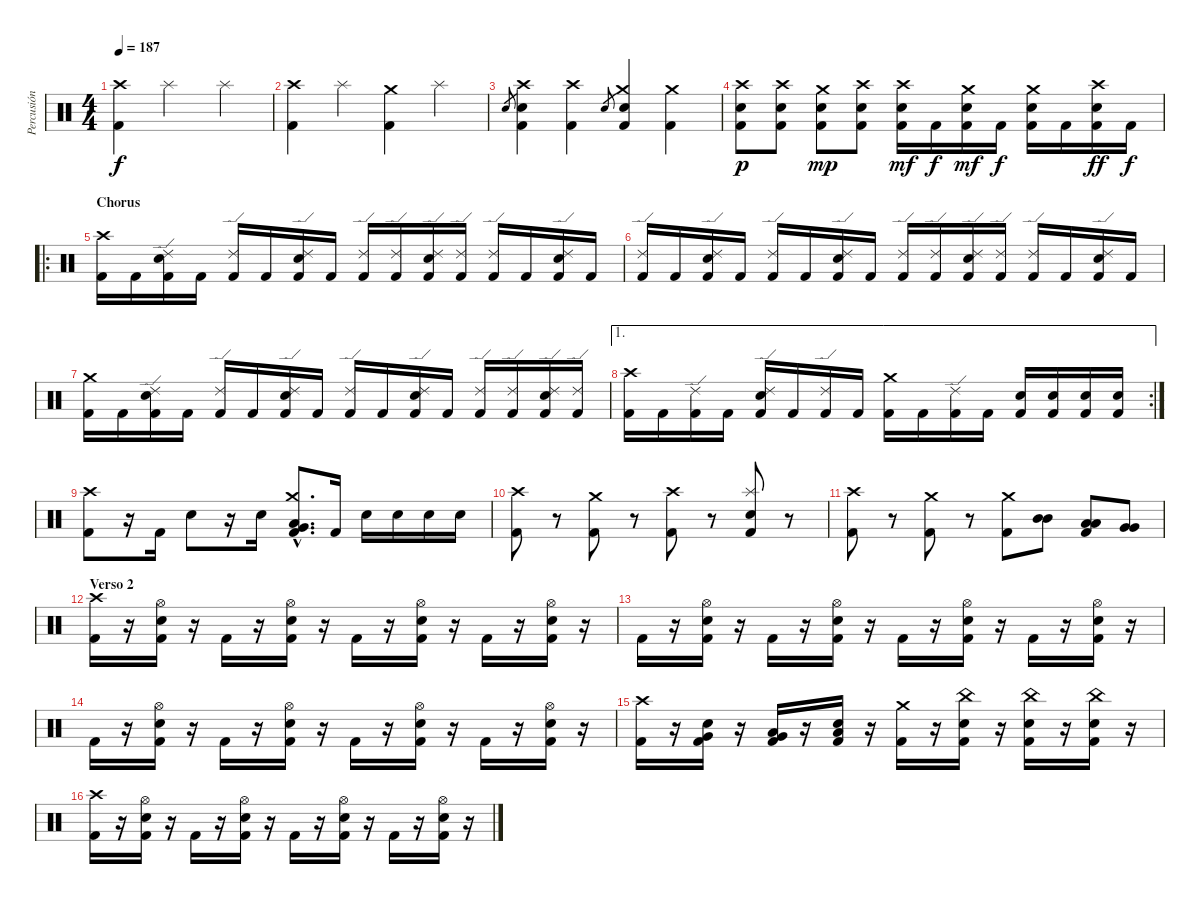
\track ("Percusión" "Percusión") {instrument percussion}
\staff {score}
\articulation defaults
\ts (4 4)
\tempo 187
\clef neutral
\ks c
("Crash high (hit)" "Kick (hit) 2").4{dy f} "Splash (hit)".2 "Splash (hit)".4 |
("Crash high (hit)" "Kick (hit) 2").4 "Splash (hit)".4 ("Crash medium (hit)" "Kick (hit) 2").4 "Splash (hit)".4 |
"Electric Snare (hit)".8{gr} ("Crash high (hit)" "Electric Snare (hit)" "Kick (hit) 2").4 ("Crash high (hit)" "Kick (hit) 2").4 "Electric Snare (hit)".8{gr} ("Crash medium (hit)" "Electric Snare (hit)" "Kick (hit) 2").4 ("Crash medium (hit)" "Kick (hit) 2").4 |
("Crash high (hit)" "Electric Snare (hit)" "Kick (hit) 2").8{dy p} ("Crash high (hit)" "Electric Snare (hit)" "Kick (hit) 2").8 ("Crash medium (hit)" "Electric Snare (hit)" "Kick (hit) 2").8{dy mp} ("Crash high (hit)" "Electric Snare (hit)" "Kick (hit) 2").8 ("Crash high (hit)" "Electric Snare (hit)" "Kick (hit) 2").16{dy mf} "Kick (hit) 2".16{dy f} ("Crash medium (hit)" "Electric Snare (hit)" "Kick (hit) 2").16{dy mf} "Kick (hit) 2".16{dy f} ("Crash medium (hit)" "Electric Snare (hit)" "Kick (hit) 2").16 "Kick (hit) 2".16 ("Crash high (hit)" "Electric Snare (hit)" "Kick (hit) 2").16{dy ff} "Kick (hit) 2".16{dy f} |
\ro
\section ("" "Chorus")
("Crash high (hit)" "Kick (hit) 2").16 "Kick (hit) 2".16 ("Ride (edge) 2" "Electric Snare (hit)" "Kick (hit) 2").16 "Kick (hit) 2".16 ("Ride (edge) 2" "Kick (hit) 2").16 "Kick (hit) 2".16 ("Ride (edge) 2" "Electric Snare (hit)" "Kick (hit) 2").16 "Kick (hit) 2".16 ("Ride (edge) 2" "Kick (hit) 2").16 ("Ride (edge) 2" "Kick (hit) 2").16 ("Ride (edge) 2" "Electric Snare (hit)" "Kick (hit) 2").16 ("Ride (edge) 2" "Kick (hit) 2").16 ("Ride (edge) 2" "Kick (hit) 2").16 "Kick (hit) 2".16 ("Ride (edge) 2" "Electric Snare (hit)" "Kick (hit) 2").16 "Kick (hit) 2".16 |
("Ride (edge) 2" "Kick (hit) 2").16 "Kick (hit) 2".16 ("Ride (edge) 2" "Electric Snare (hit)" "Kick (hit) 2").16 "Kick (hit) 2".16 ("Ride (edge) 2" "Kick (hit) 2").16 "Kick (hit) 2".16 ("Ride (edge) 2" "Electric Snare (hit)" "Kick (hit) 2").16 "Kick (hit) 2".16 ("Ride (edge) 2" "Kick (hit) 2").16 ("Ride (edge) 2" "Kick (hit) 2").16 ("Ride (edge) 2" "Electric Snare (hit)" "Kick (hit) 2").16 ("Ride (edge) 2" "Kick (hit) 2").16 ("Ride (edge) 2" "Kick (hit) 2").16 "Kick (hit) 2".16 ("Ride (edge) 2" "Electric Snare (hit)" "Kick (hit) 2").16 "Kick (hit) 2".16 |
("Crash medium (hit)" "Kick (hit) 2").16 "Kick (hit) 2".16 ("Ride (edge) 2" "Electric Snare (hit)" "Kick (hit) 2").16 "Kick (hit) 2".16 ("Ride (edge) 2" "Kick (hit) 2").16 "Kick (hit) 2".16 ("Ride (edge) 2" "Electric Snare (hit)" "Kick (hit) 2").16 "Kick (hit) 2".16 ("Ride (edge) 2" "Kick (hit) 2").16 "Kick (hit) 2".16 ("Ride (edge) 2" "Electric Snare (hit)" "Kick (hit) 2").16 "Kick (hit) 2".16 ("Ride (edge) 2" "Kick (hit) 2").16 ("Ride (edge) 2" "Kick (hit) 2").16 ("Ride (edge) 2" "Electric Snare (hit)" "Kick (hit) 2").16 ("Ride (edge) 2" "Kick (hit) 2").16 |
\ae 1
\rc 2
("Crash high (hit)" "Kick (hit) 2").16 "Kick (hit) 2".16 ("Ride (edge) 2" "Kick (hit) 2").16 "Kick (hit) 2".16 ("Ride (edge) 2" "Electric Snare (hit)" "Kick (hit) 2").16 "Kick (hit) 2".16 ("Ride (edge) 2" "Kick (hit) 2").16 "Kick (hit) 2".16 ("Crash medium (hit)" "Kick (hit) 2").16 "Kick (hit) 2".16 ("Ride (edge) 2" "Kick (hit) 2").16 "Kick (hit) 2".16 ("Electric Snare (hit)" "Kick (hit) 2").16 ("Electric Snare (hit)" "Kick (hit) 2").16 ("Electric Snare (hit)" "Kick (hit) 2").16 ("Electric Snare (hit)" "Kick (hit) 2").16 |
("Crash high (hit)" "Kick (hit) 2").8 r.16 "Kick (hit) 2".16 "Electric Snare (hit)".8 r.16 "Electric Snare (hit)".16 ("Crash medium (hit)"{hac} "Very Low Tom (hit)"{hac} "Low Tom (hit)"{hac} "Kick (hit) 2"{hac}).8{d} "Kick (hit) 2".16 "Electric Snare (hit)".16 "Electric Snare (hit)".16 "Electric Snare (hit)".16 "Electric Snare (hit)".16 |
("Crash high (hit)" "Kick (hit) 2").8 r.8 ("Crash medium (hit)" "Kick (hit) 2").8 r.8 ("Crash high (hit)" "Kick (hit) 2").8 r.8 ("Splash (hit)" "Electric Snare (hit)" "Kick (hit) 2").8 r.8 |
("Crash high (hit)" "Kick (hit) 2").8 r.8 ("Crash medium (hit)" "Kick (hit) 2").8 r.8 ("Crash medium (hit)" "Kick (hit) 2").8 ("Mid Tom (hit)" "Mid Tom (hit)").8 ("Low Tom (hit)" "Low Tom (hit)" "Kick (hit) 2").8 ("Very Low Tom (hit)" "Very Low Tom (hit)").8 |
\section ("" "Verso 2")
("Crash high (hit)" "Kick (hit) 2").16 r.16 ("Hi-Hat (open)" "Electric Snare (hit)" "Kick (hit) 2").16 r.16 "Kick (hit) 2".16 r.16 ("Hi-Hat (open)" "Electric Snare (hit)" "Kick (hit) 2").16 r.16 "Kick (hit) 2".16 r.16 ("Hi-Hat (open)" "Electric Snare (hit)" "Kick (hit) 2").16 r.16 "Kick (hit) 2".16 r.16 ("Hi-Hat (open)" "Electric Snare (hit)" "Kick (hit) 2").16 r.16 |
"Kick (hit) 2".16 r.16 ("Hi-Hat (open)" "Electric Snare (hit)" "Kick (hit) 2").16 r.16 "Kick (hit) 2".16 r.16 ("Hi-Hat (open)" "Electric Snare (hit)" "Kick (hit) 2").16 r.16 "Kick (hit) 2".16 r.16 ("Hi-Hat (open)" "Electric Snare (hit)" "Kick (hit) 2").16 r.16 "Kick (hit) 2".16 r.16 ("Hi-Hat (open)" "Electric Snare (hit)" "Kick (hit) 2").16 r.16 |
"Kick (hit) 2".16 r.16 ("Hi-Hat (open)" "Electric Snare (hit)" "Kick (hit) 2").16 r.16 "Kick (hit) 2".16 r.16 ("Hi-Hat (open)" "Electric Snare (hit)" "Kick (hit) 2").16 r.16 "Kick (hit) 2".16 r.16 ("Hi-Hat (open)" "Electric Snare (hit)" "Kick (hit) 2").16 r.16 "Kick (hit) 2".16 r.16 ("Hi-Hat (open)" "Electric Snare (hit)" "Kick (hit) 2").16 r.16 |
("Crash high (hit)" "Kick (hit) 2").16 r.16 ("Very Low Tom (hit)" "Electric Snare (hit)" "Kick (hit) 2").16 r.16 ("Very Low Tom (hit)" "Low Tom (hit)" "Kick (hit) 2").16 r.16 ("Low Tom (hit)" "Electric Snare (hit)" "Kick (hit) 2").16 r.16 ("Crash medium (hit)" "Kick (hit) 2").16 r.16 ("China (hit)" "Electric Snare (hit)" "Kick (hit) 2").16 r.16 ("China (hit)" "Electric Snare (hit)" "Kick (hit) 2").16 r.16 ("China (hit)" "Electric Snare (hit)" "Kick (hit) 2").16 r.16 |
("Crash high (hit)" "Kick (hit) 2").16 r.16 ("Hi-Hat (open)" "Electric Snare (hit)" "Kick (hit) 2").16 r.16 "Kick (hit) 2".16 r.16 ("Hi-Hat (open)" "Electric Snare (hit)" "Kick (hit) 2").16 r.16 "Kick (hit) 2".16 r.16 ("Hi-Hat (open)" "Electric Snare (hit)" "Kick (hit) 2").16 r.16 "Kick (hit) 2".16 r.16 ("Hi-Hat (open)" "Electric Snare (hit)" "Kick (hit) 2").16 r.16
